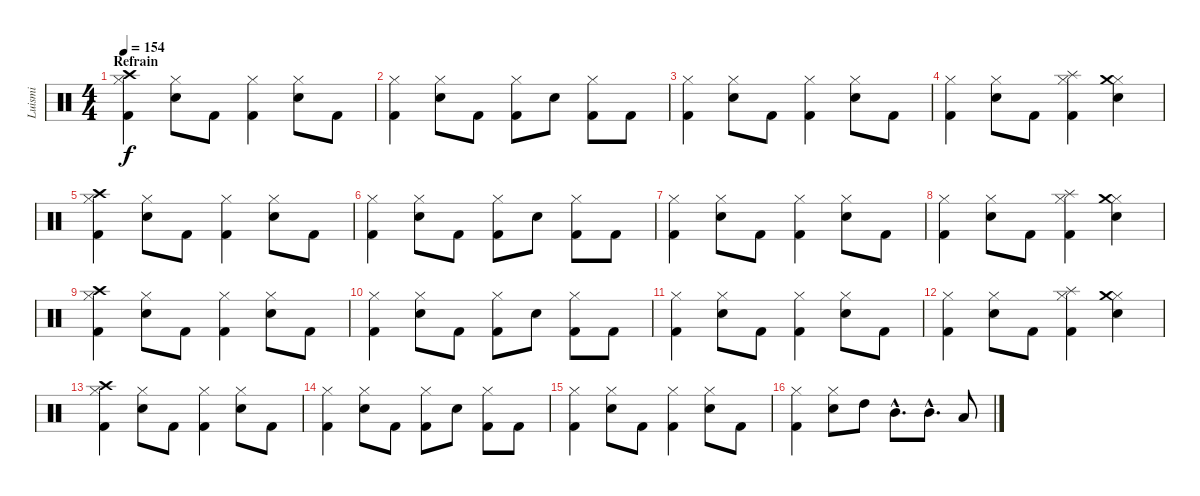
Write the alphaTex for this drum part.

\track ("Luismi" "Luismi") {instrument percussion}
\staff {score}
\articulation defaults
\ts (4 4)
\section ("" "Refrain")
\tempo 154
\clef neutral
\ks c
("Kick (hit) 2" "Hi-Hat (closed)" "Crash high (hit)").4{dy f} ("Snare (hit) 2" "Hi-Hat (closed)").8 "Kick (hit) 2".8 ("Kick (hit) 2" "Hi-Hat (closed)").4 ("Snare (hit) 2" "Hi-Hat (closed)").8 "Kick (hit) 2".8 |
("Kick (hit) 2" "Hi-Hat (closed)").4 ("Snare (hit) 2" "Hi-Hat (closed)").8 "Kick (hit) 2".8 ("Kick (hit) 2" "Hi-Hat (closed)").8 "Snare (hit) 2".8 ("Kick (hit) 2" "Hi-Hat (closed)").8 "Kick (hit) 2".8 |
("Kick (hit) 2" "Hi-Hat (closed)").4 ("Snare (hit) 2" "Hi-Hat (closed)").8 "Kick (hit) 2".8 ("Kick (hit) 2" "Hi-Hat (closed)").4 ("Snare (hit) 2" "Hi-Hat (closed)").8 "Kick (hit) 2".8 |
("Kick (hit) 2" "Hi-Hat (closed)").4 ("Snare (hit) 2" "Hi-Hat (closed)").8 "Kick (hit) 2".8 ("Kick (hit) 2" "Hi-Hat (closed)" "Splash (hit)").4 ("Snare (hit) 2" "Hi-Hat (closed)" "Crash medium (hit)").4 |
("Kick (hit) 2" "Hi-Hat (closed)" "Crash high (hit)").4 ("Snare (hit) 2" "Hi-Hat (closed)").8 "Kick (hit) 2".8 ("Kick (hit) 2" "Hi-Hat (closed)").4 ("Snare (hit) 2" "Hi-Hat (closed)").8 "Kick (hit) 2".8 |
("Kick (hit) 2" "Hi-Hat (closed)").4 ("Snare (hit) 2" "Hi-Hat (closed)").8 "Kick (hit) 2".8 ("Kick (hit) 2" "Hi-Hat (closed)").8 "Snare (hit) 2".8 ("Kick (hit) 2" "Hi-Hat (closed)").8 "Kick (hit) 2".8 |
("Kick (hit) 2" "Hi-Hat (closed)").4 ("Snare (hit) 2" "Hi-Hat (closed)").8 "Kick (hit) 2".8 ("Kick (hit) 2" "Hi-Hat (closed)").4 ("Snare (hit) 2" "Hi-Hat (closed)").8 "Kick (hit) 2".8 |
("Kick (hit) 2" "Hi-Hat (closed)").4 ("Snare (hit) 2" "Hi-Hat (closed)").8 "Kick (hit) 2".8 ("Kick (hit) 2" "Hi-Hat (closed)" "Splash (hit)").4 ("Snare (hit) 2" "Hi-Hat (closed)" "Crash medium (hit)").4 |
\section ("" "")
("Kick (hit) 2" "Hi-Hat (closed)" "Crash high (hit)").4 ("Snare (hit) 2" "Hi-Hat (closed)").8 "Kick (hit) 2".8 ("Kick (hit) 2" "Hi-Hat (closed)").4 ("Snare (hit) 2" "Hi-Hat (closed)").8 "Kick (hit) 2".8 |
("Kick (hit) 2" "Hi-Hat (closed)").4 ("Snare (hit) 2" "Hi-Hat (closed)").8 "Kick (hit) 2".8 ("Kick (hit) 2" "Hi-Hat (closed)").8 "Snare (hit) 2".8 ("Kick (hit) 2" "Hi-Hat (closed)").8 "Kick (hit) 2".8 |
("Kick (hit) 2" "Hi-Hat (closed)").4 ("Snare (hit) 2" "Hi-Hat (closed)").8 "Kick (hit) 2".8 ("Kick (hit) 2" "Hi-Hat (closed)").4 ("Snare (hit) 2" "Hi-Hat (closed)").8 "Kick (hit) 2".8 |
("Kick (hit) 2" "Hi-Hat (closed)").4 ("Snare (hit) 2" "Hi-Hat (closed)").8 "Kick (hit) 2".8 ("Kick (hit) 2" "Hi-Hat (closed)" "Splash (hit)").4 ("Snare (hit) 2" "Hi-Hat (closed)" "Crash medium (hit)").4 |
("Kick (hit) 2" "Hi-Hat (closed)" "Crash high (hit)").4 ("Snare (hit) 2" "Hi-Hat (closed)").8 "Kick (hit) 2".8 ("Kick (hit) 2" "Hi-Hat (closed)").4 ("Snare (hit) 2" "Hi-Hat (closed)").8 "Kick (hit) 2".8 |
("Kick (hit) 2" "Hi-Hat (closed)").4 ("Snare (hit) 2" "Hi-Hat (closed)").8 "Kick (hit) 2".8 ("Kick (hit) 2" "Hi-Hat (closed)").8 "Snare (hit) 2".8 ("Kick (hit) 2" "Hi-Hat (closed)").8 "Kick (hit) 2".8 |
("Kick (hit) 2" "Hi-Hat (closed)").4 ("Snare (hit) 2" "Hi-Hat (closed)").8 "Kick (hit) 2".8 ("Kick (hit) 2" "Hi-Hat (closed)").4 ("Snare (hit) 2" "Hi-Hat (closed)").8 "Kick (hit) 2".8 |
("Kick (hit) 2" "Hi-Hat (closed)").4 ("Snare (hit) 2" "Hi-Hat (closed)").8 "High Tom (hit)".8 "Mid Tom (hit)"{hac}.8{d} "Mid Tom (hit)"{hac}.8{d} "Low Tom (hit)".8
